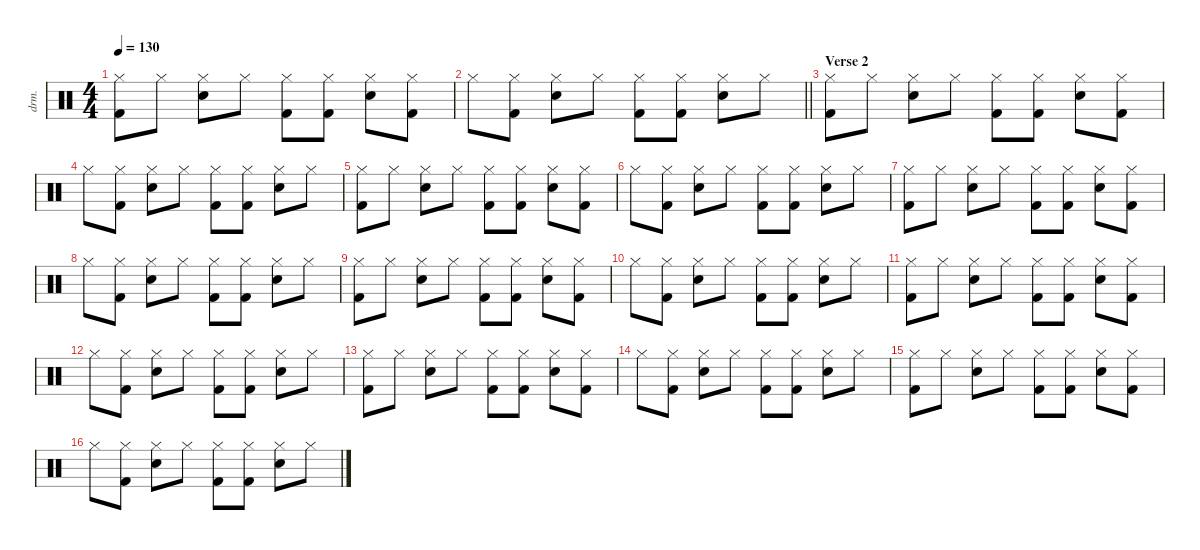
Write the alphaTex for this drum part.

\defaultSystemsLayout 4
\hideDynamics
\bracketExtendMode nobrackets
\otherSystemsTrackNameOrientation horizontal
\track ("Jimmy" "drm.") {instrument percussion}
\staff {score}
\articulation defaults
\ts (4 4)
\tempo 130
\clef neutral
\ks c
("Hi-Hat (closed)" "Kick (hit) 2").8{dy f beam Down} "Hi-Hat (closed)".8{beam Down} ("Hi-Hat (closed)" "Snare (hit) 2").8{beam Down} "Hi-Hat (closed)".8{beam Down} ("Hi-Hat (closed)" "Kick (hit) 2").8{beam Down} ("Hi-Hat (closed)" "Kick (hit) 2").8{beam Down} ("Hi-Hat (closed)" "Snare (hit) 2").8{beam Down} ("Hi-Hat (closed)" "Kick (hit) 2").8{beam Down} |
\barLineRight lightlight "Hi-Hat (closed)".8{beam Down}
("Hi-Hat (closed)" "Kick (hit) 2").8{beam Down} ("Hi-Hat (closed)" "Snare (hit) 2").8{beam Down} "Hi-Hat (closed)".8{beam Down} ("Hi-Hat (closed)" "Kick (hit) 2").8{beam Down} ("Hi-Hat (closed)" "Kick (hit) 2").8{beam Down} ("Hi-Hat (closed)" "Snare (hit) 2").8{beam Down} "Hi-Hat (closed)".8{beam Down} |
\section ("" "Verse 2")
("Hi-Hat (closed)" "Kick (hit) 2").8{beam Down} "Hi-Hat (closed)".8{beam Down} ("Hi-Hat (closed)" "Snare (hit) 2").8{beam Down} "Hi-Hat (closed)".8{beam Down} ("Hi-Hat (closed)" "Kick (hit) 2").8{beam Down} ("Hi-Hat (closed)" "Kick (hit) 2").8{beam Down} ("Hi-Hat (closed)" "Snare (hit) 2").8{beam Down} ("Hi-Hat (closed)" "Kick (hit) 2").8{beam Down} |
"Hi-Hat (closed)".8{beam Down} ("Hi-Hat (closed)" "Kick (hit) 2").8{beam Down} ("Hi-Hat (closed)" "Snare (hit) 2").8{beam Down} "Hi-Hat (closed)".8{beam Down} ("Hi-Hat (closed)" "Kick (hit) 2").8{beam Down} ("Hi-Hat (closed)" "Kick (hit) 2").8{beam Down} ("Hi-Hat (closed)" "Snare (hit) 2").8{beam Down} "Hi-Hat (closed)".8{beam Down} |
("Hi-Hat (closed)" "Kick (hit) 2").8{beam Down} "Hi-Hat (closed)".8{beam Down} ("Hi-Hat (closed)" "Snare (hit) 2").8{beam Down} "Hi-Hat (closed)".8{beam Down} ("Hi-Hat (closed)" "Kick (hit) 2").8{beam Down} ("Hi-Hat (closed)" "Kick (hit) 2").8{beam Down} ("Hi-Hat (closed)" "Snare (hit) 2").8{beam Down} ("Hi-Hat (closed)" "Kick (hit) 2").8{beam Down} |
"Hi-Hat (closed)".8{beam Down} ("Hi-Hat (closed)" "Kick (hit) 2").8{beam Down} ("Hi-Hat (closed)" "Snare (hit) 2").8{beam Down} "Hi-Hat (closed)".8{beam Down} ("Hi-Hat (closed)" "Kick (hit) 2").8{beam Down} ("Hi-Hat (closed)" "Kick (hit) 2").8{beam Down} ("Hi-Hat (closed)" "Snare (hit) 2").8{beam Down} "Hi-Hat (closed)".8{beam Down} |
("Hi-Hat (closed)" "Kick (hit) 2").8{beam Down} "Hi-Hat (closed)".8{beam Down} ("Hi-Hat (closed)" "Snare (hit) 2").8{beam Down} "Hi-Hat (closed)".8{beam Down} ("Hi-Hat (closed)" "Kick (hit) 2").8{beam Down} ("Hi-Hat (closed)" "Kick (hit) 2").8{beam Down} ("Hi-Hat (closed)" "Snare (hit) 2").8{beam Down} ("Hi-Hat (closed)" "Kick (hit) 2").8{beam Down} |
"Hi-Hat (closed)".8{beam Down} ("Hi-Hat (closed)" "Kick (hit) 2").8{beam Down} ("Hi-Hat (closed)" "Snare (hit) 2").8{beam Down} "Hi-Hat (closed)".8{beam Down} ("Hi-Hat (closed)" "Kick (hit) 2").8{beam Down} ("Hi-Hat (closed)" "Kick (hit) 2").8{beam Down} ("Hi-Hat (closed)" "Snare (hit) 2").8{beam Down} "Hi-Hat (closed)".8{beam Down} |
("Hi-Hat (closed)" "Kick (hit) 2").8{beam Down} "Hi-Hat (closed)".8{beam Down} ("Hi-Hat (closed)" "Snare (hit) 2").8{beam Down} "Hi-Hat (closed)".8{beam Down} ("Hi-Hat (closed)" "Kick (hit) 2").8{beam Down} ("Hi-Hat (closed)" "Kick (hit) 2").8{beam Down} ("Hi-Hat (closed)" "Snare (hit) 2").8{beam Down} ("Hi-Hat (closed)" "Kick (hit) 2").8{beam Down} |
"Hi-Hat (closed)".8{beam Down} ("Hi-Hat (closed)" "Kick (hit) 2").8{beam Down} ("Hi-Hat (closed)" "Snare (hit) 2").8{beam Down} "Hi-Hat (closed)".8{beam Down} ("Hi-Hat (closed)" "Kick (hit) 2").8{beam Down} ("Hi-Hat (closed)" "Kick (hit) 2").8{beam Down} ("Hi-Hat (closed)" "Snare (hit) 2").8{beam Down} "Hi-Hat (closed)".8{beam Down} |
("Hi-Hat (closed)" "Kick (hit) 2").8{beam Down} "Hi-Hat (closed)".8{beam Down} ("Hi-Hat (closed)" "Snare (hit) 2").8{beam Down} "Hi-Hat (closed)".8{beam Down} ("Hi-Hat (closed)" "Kick (hit) 2").8{beam Down} ("Hi-Hat (closed)" "Kick (hit) 2").8{beam Down} ("Hi-Hat (closed)" "Snare (hit) 2").8{beam Down} ("Hi-Hat (closed)" "Kick (hit) 2").8{beam Down} |
"Hi-Hat (closed)".8{beam Down} ("Hi-Hat (closed)" "Kick (hit) 2").8{beam Down} ("Hi-Hat (closed)" "Snare (hit) 2").8{beam Down} "Hi-Hat (closed)".8{beam Down} ("Hi-Hat (closed)" "Kick (hit) 2").8{beam Down} ("Hi-Hat (closed)" "Kick (hit) 2").8{beam Down} ("Hi-Hat (closed)" "Snare (hit) 2").8{beam Down} "Hi-Hat (closed)".8{beam Down} |
("Hi-Hat (closed)" "Kick (hit) 2").8{beam Down} "Hi-Hat (closed)".8{beam Down} ("Hi-Hat (closed)" "Snare (hit) 2").8{beam Down} "Hi-Hat (closed)".8{beam Down} ("Hi-Hat (closed)" "Kick (hit) 2").8{beam Down} ("Hi-Hat (closed)" "Kick (hit) 2").8{beam Down} ("Hi-Hat (closed)" "Snare (hit) 2").8{beam Down} ("Hi-Hat (closed)" "Kick (hit) 2").8{beam Down} |
"Hi-Hat (closed)".8{beam Down} ("Hi-Hat (closed)" "Kick (hit) 2").8{beam Down} ("Hi-Hat (closed)" "Snare (hit) 2").8{beam Down} "Hi-Hat (closed)".8{beam Down} ("Hi-Hat (closed)" "Kick (hit) 2").8{beam Down} ("Hi-Hat (closed)" "Kick (hit) 2").8{beam Down} ("Hi-Hat (closed)" "Snare (hit) 2").8{beam Down} "Hi-Hat (closed)".8{beam Down} |
("Hi-Hat (closed)" "Kick (hit) 2").8{beam Down} "Hi-Hat (closed)".8{beam Down} ("Hi-Hat (closed)" "Snare (hit) 2").8{beam Down} "Hi-Hat (closed)".8{beam Down} ("Hi-Hat (closed)" "Kick (hit) 2").8{beam Down} ("Hi-Hat (closed)" "Kick (hit) 2").8{beam Down} ("Hi-Hat (closed)" "Snare (hit) 2").8{beam Down} ("Hi-Hat (closed)" "Kick (hit) 2").8{beam Down} |
"Hi-Hat (closed)".8{beam Down} ("Hi-Hat (closed)" "Kick (hit) 2").8{beam Down} ("Hi-Hat (closed)" "Snare (hit) 2").8{beam Down} "Hi-Hat (closed)".8{beam Down} ("Hi-Hat (closed)" "Kick (hit) 2").8{beam Down} ("Hi-Hat (closed)" "Kick (hit) 2").8{beam Down} ("Hi-Hat (closed)" "Snare (hit) 2").8{beam Down} "Hi-Hat (closed)".8{beam Down}
